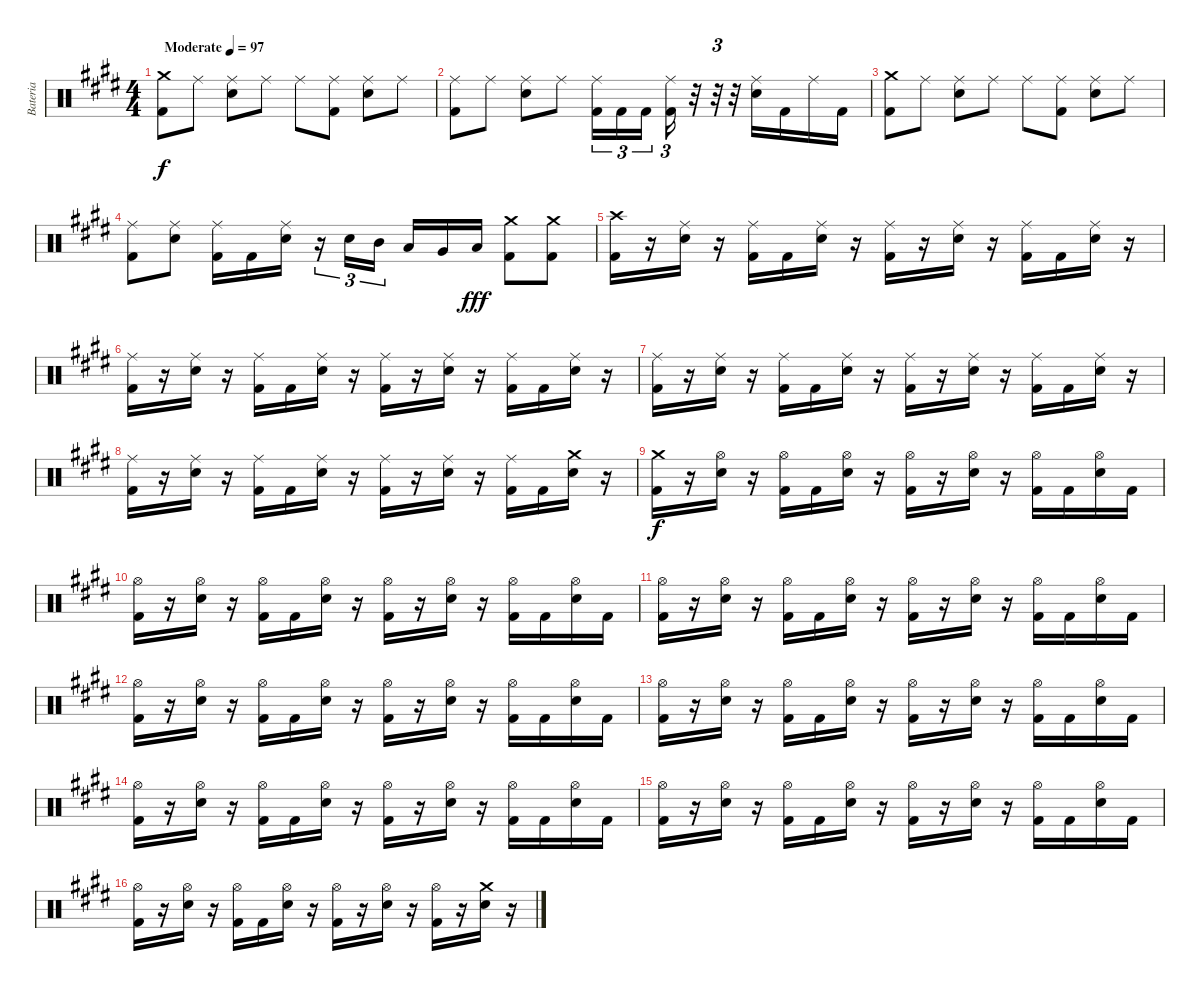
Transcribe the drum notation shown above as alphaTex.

\track ("Bateria" "Bateria") {instrument percussion}
\staff {score}
\articulation defaults
\ts (4 4)
\tempo (97 "Moderate")
\clef neutral
\ks e
("Crash medium (hit)" "Kick (hit) 2").8{dy f} "Ride (middle)".8 ("Ride (middle)" "Electric Snare (hit)").8 "Ride (middle)".8 "Ride (middle)".8 ("Ride (middle)" "Kick (hit) 2").8 ("Ride (middle)" "Electric Snare (hit)").8 "Ride (middle)".8 |
("Ride (middle)" "Kick (hit) 2").8 "Ride (middle)".8 ("Ride (middle)" "Electric Snare (hit)").8 "Ride (middle)".8 ("Ride (middle)" "Kick (hit) 2").16{tu (3 2)} "Kick (hit) 2".16{tu (3 2)} "Kick (hit) 2".16{tu (3 2) beam splitsecondary} ("Ride (middle)" "Kick (hit) 2").16{tu (3 2)} r.32 r.32{tu (3 2)} r.32 ("Electric Snare (hit)" "Ride (middle)").16 "Kick (hit) 2".16 "Ride (middle)".16 "Kick (hit) 2".16 |
("Crash medium (hit)" "Kick (hit) 2").8 "Ride (middle)".8 ("Ride (middle)" "Electric Snare (hit)").8 "Ride (middle)".8 "Ride (middle)".8 ("Ride (middle)" "Kick (hit) 2").8 ("Ride (middle)" "Electric Snare (hit)").8 "Ride (middle)".8 |
("Ride (middle)" "Kick (hit) 2").8 ("Ride (middle)" "Electric Snare (hit)").8 ("Ride (middle)" "Kick (hit) 2").16 "Kick (hit) 2".16 ("Ride (middle)" "Electric Snare (hit)").16 r.16{tu (3 2)} "Electric Snare (hit)".16{tu (3 2)} "Mid Tom (hit)".16{tu (3 2) beam splitsecondary} "Low Tom (hit)".16 "Very Low Tom (hit)".16 "Low Floor Tom (hit)".16{dy fff} ("Crash medium (hit)" "Kick (hit) 2").8 ("Crash medium (hit)" "Kick (hit) 2").8 |
("Crash high (hit)" "Kick (hit) 2").16 r.16 ("Ride (middle)" "Electric Snare (hit)").16 r.16 ("Ride (middle)" "Kick (hit) 2").16 "Kick (hit) 2".16 ("Ride (middle)" "Electric Snare (hit)").16 r.16 ("Ride (middle)" "Kick (hit) 2").16 r.16 ("Ride (middle)" "Electric Snare (hit)").16 r.16 ("Ride (middle)" "Kick (hit) 2").16 "Kick (hit) 2".16 ("Ride (middle)" "Electric Snare (hit)").16 r.16 |
("Ride (middle)" "Kick (hit) 2").16 r.16 ("Ride (middle)" "Electric Snare (hit)").16 r.16 ("Ride (middle)" "Kick (hit) 2").16 "Kick (hit) 2".16 ("Ride (middle)" "Electric Snare (hit)").16 r.16 ("Ride (middle)" "Kick (hit) 2").16 r.16 ("Ride (middle)" "Electric Snare (hit)").16 r.16 ("Ride (middle)" "Kick (hit) 2").16 "Kick (hit) 2".16 ("Ride (middle)" "Electric Snare (hit)").16 r.16 |
("Ride (middle)" "Kick (hit) 2").16 r.16 ("Ride (middle)" "Electric Snare (hit)").16 r.16 ("Ride (middle)" "Kick (hit) 2").16 "Kick (hit) 2".16 ("Ride (middle)" "Electric Snare (hit)").16 r.16 ("Ride (middle)" "Kick (hit) 2").16 r.16 ("Ride (middle)" "Electric Snare (hit)").16 r.16 ("Ride (middle)" "Kick (hit) 2").16 "Kick (hit) 2".16 ("Ride (middle)" "Electric Snare (hit)").16 r.16 |
("Ride (middle)" "Kick (hit) 2").16 r.16 ("Ride (middle)" "Electric Snare (hit)").16 r.16 ("Ride (middle)" "Kick (hit) 2").16 "Kick (hit) 2".16 ("Ride (middle)" "Electric Snare (hit)").16 r.16 ("Ride (middle)" "Kick (hit) 2").16 r.16 ("Ride (middle)" "Electric Snare (hit)").16 r.16 ("Ride (middle)" "Kick (hit) 2").16 "Kick (hit) 2".16 ("Crash medium (hit)" "Electric Snare (hit)").16 r.16 |
("Crash medium (hit)" "Kick (hit) 2").16{dy f} r.16 ("Hi-Hat (open)" "Electric Snare (hit)").16 r.16 ("Hi-Hat (open)" "Kick (hit) 2").16 "Kick (hit) 2".16 ("Hi-Hat (open)" "Electric Snare (hit)").16 r.16 ("Hi-Hat (open)" "Kick (hit) 2").16 r.16 ("Hi-Hat (open)" "Electric Snare (hit)").16 r.16 ("Hi-Hat (open)" "Kick (hit) 2").16 "Kick (hit) 2".16 ("Hi-Hat (open)" "Electric Snare (hit)").16 "Kick (hit) 2".16 |
("Hi-Hat (open)" "Kick (hit) 2").16 r.16 ("Hi-Hat (open)" "Electric Snare (hit)").16 r.16 ("Hi-Hat (open)" "Kick (hit) 2").16 "Kick (hit) 2".16 ("Hi-Hat (open)" "Electric Snare (hit)").16 r.16 ("Hi-Hat (open)" "Kick (hit) 2").16 r.16 ("Hi-Hat (open)" "Electric Snare (hit)").16 r.16 ("Hi-Hat (open)" "Kick (hit) 2").16 "Kick (hit) 2".16 ("Hi-Hat (open)" "Electric Snare (hit)").16 "Kick (hit) 2".16 |
("Hi-Hat (open)" "Kick (hit) 2").16 r.16 ("Hi-Hat (open)" "Electric Snare (hit)").16 r.16 ("Hi-Hat (open)" "Kick (hit) 2").16 "Kick (hit) 2".16 ("Hi-Hat (open)" "Electric Snare (hit)").16 r.16 ("Hi-Hat (open)" "Kick (hit) 2").16 r.16 ("Hi-Hat (open)" "Electric Snare (hit)").16 r.16 ("Hi-Hat (open)" "Kick (hit) 2").16 "Kick (hit) 2".16 ("Hi-Hat (open)" "Electric Snare (hit)").16 "Kick (hit) 2".16 |
("Hi-Hat (open)" "Kick (hit) 2").16 r.16 ("Hi-Hat (open)" "Electric Snare (hit)").16 r.16 ("Hi-Hat (open)" "Kick (hit) 2").16 "Kick (hit) 2".16 ("Hi-Hat (open)" "Electric Snare (hit)").16 r.16 ("Hi-Hat (open)" "Kick (hit) 2").16 r.16 ("Hi-Hat (open)" "Electric Snare (hit)").16 r.16 ("Hi-Hat (open)" "Kick (hit) 2").16 "Kick (hit) 2".16 ("Hi-Hat (open)" "Electric Snare (hit)").16 "Kick (hit) 2".16 |
("Hi-Hat (open)" "Kick (hit) 2").16 r.16 ("Hi-Hat (open)" "Electric Snare (hit)").16 r.16 ("Hi-Hat (open)" "Kick (hit) 2").16 "Kick (hit) 2".16 ("Hi-Hat (open)" "Electric Snare (hit)").16 r.16 ("Hi-Hat (open)" "Kick (hit) 2").16 r.16 ("Hi-Hat (open)" "Electric Snare (hit)").16 r.16 ("Hi-Hat (open)" "Kick (hit) 2").16 "Kick (hit) 2".16 ("Hi-Hat (open)" "Electric Snare (hit)").16 "Kick (hit) 2".16 |
("Hi-Hat (open)" "Kick (hit) 2").16 r.16 ("Hi-Hat (open)" "Electric Snare (hit)").16 r.16 ("Hi-Hat (open)" "Kick (hit) 2").16 "Kick (hit) 2".16 ("Hi-Hat (open)" "Electric Snare (hit)").16 r.16 ("Hi-Hat (open)" "Kick (hit) 2").16 r.16 ("Hi-Hat (open)" "Electric Snare (hit)").16 r.16 ("Hi-Hat (open)" "Kick (hit) 2").16 "Kick (hit) 2".16 ("Hi-Hat (open)" "Electric Snare (hit)").16 "Kick (hit) 2".16 |
("Hi-Hat (open)" "Kick (hit) 2").16 r.16 ("Hi-Hat (open)" "Electric Snare (hit)").16 r.16 ("Hi-Hat (open)" "Kick (hit) 2").16 "Kick (hit) 2".16 ("Hi-Hat (open)" "Electric Snare (hit)").16 r.16 ("Hi-Hat (open)" "Kick (hit) 2").16 r.16 ("Hi-Hat (open)" "Electric Snare (hit)").16 r.16 ("Hi-Hat (open)" "Kick (hit) 2").16 "Kick (hit) 2".16 ("Hi-Hat (open)" "Electric Snare (hit)").16 "Kick (hit) 2".16 |
("Hi-Hat (open)" "Kick (hit) 2").16 r.16 ("Hi-Hat (open)" "Electric Snare (hit)").16 r.16 ("Hi-Hat (open)" "Kick (hit) 2").16 "Kick (hit) 2".16 ("Hi-Hat (open)" "Electric Snare (hit)").16 r.16 ("Hi-Hat (open)" "Kick (hit) 2").16 r.16 ("Hi-Hat (open)" "Electric Snare (hit)").16 r.16 ("Hi-Hat (open)" "Kick (hit) 2").16 r.16 ("Crash medium (hit)" "Electric Snare (hit)").16 r.16
